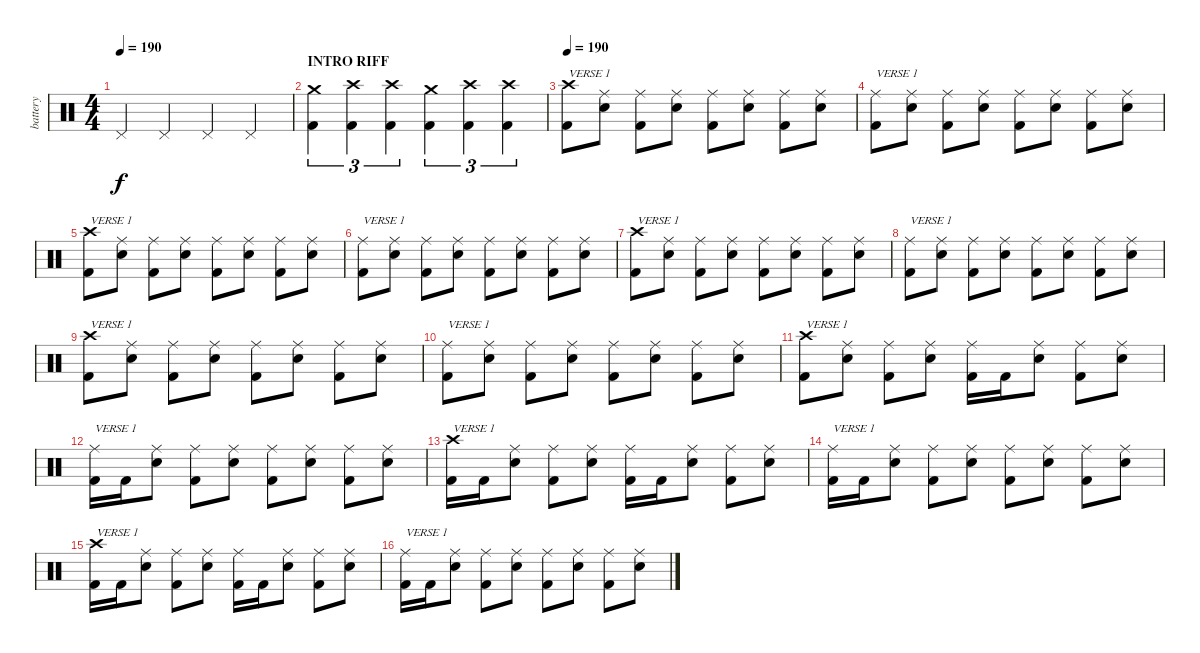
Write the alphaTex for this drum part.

\track ("battery" "battery") {instrument percussion}
\staff {score}
\articulation defaults
\ts (4 4)
\tempo 190
\tempo 175
\tempo 190
\clef neutral
\ks c "Pedal Hi-Hat (hit)".4{dy f} "Pedal Hi-Hat (hit)".4 "Pedal Hi-Hat (hit)".4 "Pedal Hi-Hat (hit)".4
|
\section ("" "INTRO RIFF")
("Crash medium (hit)" "Kick (hit) 2").4{tu (3 2)} ("Crash high (hit)" "Kick (hit) 2").4{tu (3 2)} ("Crash high (hit)" "Kick (hit) 2").4{tu (3 2)} ("Crash medium (hit)" "Kick (hit) 2").4{tu (3 2)} ("Crash high (hit)" "Kick (hit) 2").4{tu (3 2)} ("Crash high (hit)" "Kick (hit) 2").4{tu (3 2)} |
\tempo 190
("Crash high (hit)" "Kick (hit) 2").8{txt "VERSE 1"} ("Ride (middle)" "Electric Snare (hit)").8 ("Ride (middle)" "Kick (hit) 2").8 ("Ride (middle)" "Electric Snare (hit)").8 ("Ride (middle)" "Kick (hit) 2").8 ("Ride (middle)" "Electric Snare (hit)").8 ("Ride (middle)" "Kick (hit) 2").8 ("Ride (middle)" "Electric Snare (hit)").8 |
("Ride (middle)" "Kick (hit) 2").8{txt "VERSE 1"} ("Ride (middle)" "Electric Snare (hit)").8 ("Ride (middle)" "Kick (hit) 2").8 ("Ride (middle)" "Electric Snare (hit)").8 ("Ride (middle)" "Kick (hit) 2").8 ("Ride (middle)" "Electric Snare (hit)").8 ("Ride (middle)" "Kick (hit) 2").8 ("Ride (middle)" "Electric Snare (hit)").8 |
("Crash high (hit)" "Kick (hit) 2").8{txt "VERSE 1"} ("Ride (middle)" "Electric Snare (hit)").8 ("Ride (middle)" "Kick (hit) 2").8 ("Ride (middle)" "Electric Snare (hit)").8 ("Ride (middle)" "Kick (hit) 2").8 ("Ride (middle)" "Electric Snare (hit)").8 ("Ride (middle)" "Kick (hit) 2").8 ("Ride (middle)" "Electric Snare (hit)").8 |
("Ride (middle)" "Kick (hit) 2").8{txt "VERSE 1"} ("Ride (middle)" "Electric Snare (hit)").8 ("Ride (middle)" "Kick (hit) 2").8 ("Ride (middle)" "Electric Snare (hit)").8 ("Ride (middle)" "Kick (hit) 2").8 ("Ride (middle)" "Electric Snare (hit)").8 ("Ride (middle)" "Kick (hit) 2").8 ("Ride (middle)" "Electric Snare (hit)").8 |
("Crash high (hit)" "Kick (hit) 2").8{txt "VERSE 1"} ("Ride (middle)" "Electric Snare (hit)").8 ("Ride (middle)" "Kick (hit) 2").8 ("Ride (middle)" "Electric Snare (hit)").8 ("Ride (middle)" "Kick (hit) 2").8 ("Ride (middle)" "Electric Snare (hit)").8 ("Ride (middle)" "Kick (hit) 2").8 ("Ride (middle)" "Electric Snare (hit)").8 |
("Ride (middle)" "Kick (hit) 2").8{txt "VERSE 1"} ("Ride (middle)" "Electric Snare (hit)").8 ("Ride (middle)" "Kick (hit) 2").8 ("Ride (middle)" "Electric Snare (hit)").8 ("Ride (middle)" "Kick (hit) 2").8 ("Ride (middle)" "Electric Snare (hit)").8 ("Ride (middle)" "Kick (hit) 2").8 ("Ride (middle)" "Electric Snare (hit)").8 |
("Crash high (hit)" "Kick (hit) 2").8{txt "VERSE 1"} ("Ride (middle)" "Electric Snare (hit)").8 ("Ride (middle)" "Kick (hit) 2").8 ("Ride (middle)" "Electric Snare (hit)").8 ("Ride (middle)" "Kick (hit) 2").8 ("Ride (middle)" "Electric Snare (hit)").8 ("Ride (middle)" "Kick (hit) 2").8 ("Ride (middle)" "Electric Snare (hit)").8 |
("Ride (middle)" "Kick (hit) 2").8{txt "VERSE 1"} ("Ride (middle)" "Electric Snare (hit)").8 ("Ride (middle)" "Kick (hit) 2").8 ("Ride (middle)" "Electric Snare (hit)").8 ("Ride (middle)" "Kick (hit) 2").8 ("Ride (middle)" "Electric Snare (hit)").8 ("Ride (middle)" "Kick (hit) 2").8 ("Ride (middle)" "Electric Snare (hit)").8 |
("Crash high (hit)" "Kick (hit) 2").8{txt "VERSE 1"} ("Ride (middle)" "Electric Snare (hit)").8 ("Ride (middle)" "Kick (hit) 2").8 ("Ride (middle)" "Electric Snare (hit)").8 ("Ride (middle)" "Kick (hit) 2").16 "Kick (hit) 2".16 ("Ride (middle)" "Electric Snare (hit)").8 ("Ride (middle)" "Kick (hit) 2").8 ("Ride (middle)" "Electric Snare (hit)").8 |
("Ride (middle)" "Kick (hit) 2").16{txt "VERSE 1"} "Kick (hit) 2".16 ("Ride (middle)" "Electric Snare (hit)").8 ("Ride (middle)" "Kick (hit) 2").8 ("Ride (middle)" "Electric Snare (hit)").8 ("Ride (middle)" "Kick (hit) 2").8 ("Ride (middle)" "Electric Snare (hit)").8 ("Ride (middle)" "Kick (hit) 2").8 ("Ride (middle)" "Electric Snare (hit)").8 |
("Crash high (hit)" "Kick (hit) 2").16{txt "VERSE 1"} "Kick (hit) 2".16 ("Ride (middle)" "Electric Snare (hit)").8 ("Ride (middle)" "Kick (hit) 2").8 ("Ride (middle)" "Electric Snare (hit)").8 ("Ride (middle)" "Kick (hit) 2").16 "Kick (hit) 2".16 ("Ride (middle)" "Electric Snare (hit)").8 ("Ride (middle)" "Kick (hit) 2").8 ("Ride (middle)" "Electric Snare (hit)").8 |
("Ride (middle)" "Kick (hit) 2").16{txt "VERSE 1"} "Kick (hit) 2".16 ("Ride (middle)" "Electric Snare (hit)").8 ("Ride (middle)" "Kick (hit) 2").8 ("Ride (middle)" "Electric Snare (hit)").8 ("Ride (middle)" "Kick (hit) 2").8 ("Ride (middle)" "Electric Snare (hit)").8 ("Ride (middle)" "Kick (hit) 2").8 ("Ride (middle)" "Electric Snare (hit)").8 |
("Crash high (hit)" "Kick (hit) 2").16{txt "VERSE 1"} "Kick (hit) 2".16 ("Ride (middle)" "Electric Snare (hit)").8 ("Ride (middle)" "Kick (hit) 2").8 ("Ride (middle)" "Electric Snare (hit)").8 ("Ride (middle)" "Kick (hit) 2").16 "Kick (hit) 2".16 ("Ride (middle)" "Electric Snare (hit)").8 ("Ride (middle)" "Kick (hit) 2").8 ("Ride (middle)" "Electric Snare (hit)").8 |
("Ride (middle)" "Kick (hit) 2").16{txt "VERSE 1"} "Kick (hit) 2".16 ("Ride (middle)" "Electric Snare (hit)").8 ("Ride (middle)" "Kick (hit) 2").8 ("Ride (middle)" "Electric Snare (hit)").8 ("Ride (middle)" "Kick (hit) 2").8 ("Ride (middle)" "Electric Snare (hit)").8 ("Ride (middle)" "Kick (hit) 2").8 ("Ride (middle)" "Electric Snare (hit)").8
